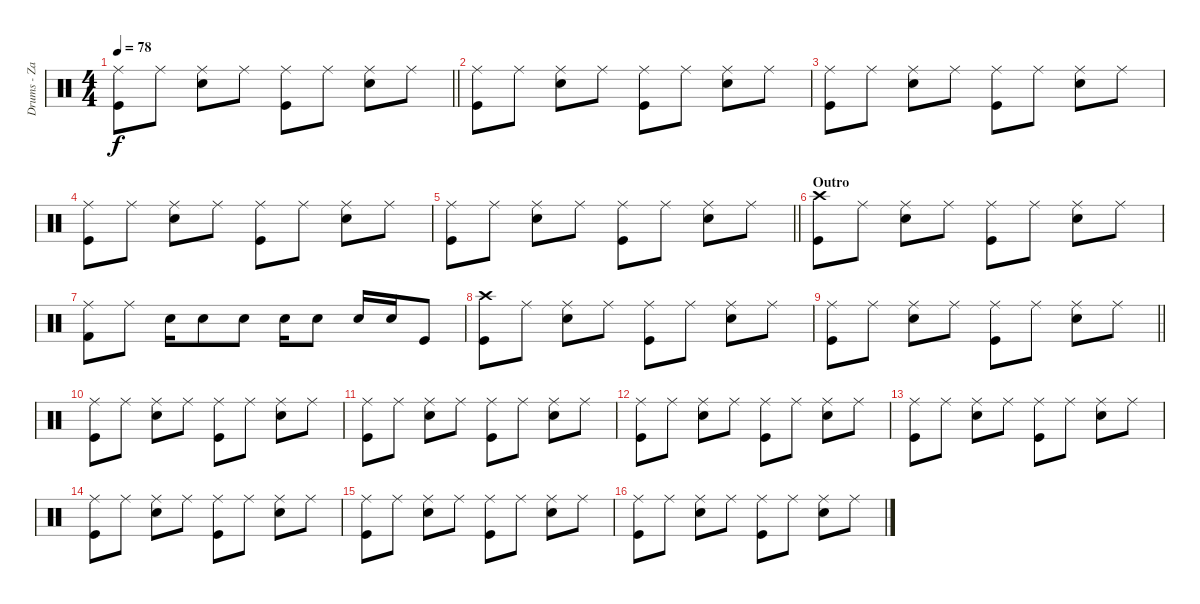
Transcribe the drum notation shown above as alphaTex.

\track ("Drums - Zakk Starkey" "Drums - Za") {instrument percussion}
\staff {score}
\articulation defaults
\ts (4 4)
\tempo 78
\clef neutral
\barLineRight lightlight
\ks c
("Ride (middle)" "Kick (hit)").8{dy f} "Ride (middle)".8 ("Ride (middle)" "Snare (hit) 2").8 "Ride (middle)".8 ("Ride (middle)" "Kick (hit)").8 "Ride (middle)".8 ("Ride (middle)" "Snare (hit) 2").8 "Ride (middle)".8 |
("Ride (middle)" "Kick (hit)").8 "Ride (middle)".8 ("Ride (middle)" "Snare (hit) 2").8 "Ride (middle)".8 ("Ride (middle)" "Kick (hit)").8 "Ride (middle)".8 ("Ride (middle)" "Snare (hit) 2").8 "Ride (middle)".8 |
("Ride (middle)" "Kick (hit)").8 "Ride (middle)".8 ("Ride (middle)" "Snare (hit) 2").8 "Ride (middle)".8 ("Ride (middle)" "Kick (hit)").8 "Ride (middle)".8 ("Ride (middle)" "Snare (hit) 2").8 "Ride (middle)".8 |
("Ride (middle)" "Kick (hit)").8 "Ride (middle)".8 ("Ride (middle)" "Snare (hit) 2").8 "Ride (middle)".8 ("Ride (middle)" "Kick (hit)").8 "Ride (middle)".8 ("Ride (middle)" "Snare (hit) 2").8 "Ride (middle)".8 |
\barLineRight lightlight
("Ride (middle)" "Kick (hit)").8 "Ride (middle)".8 ("Ride (middle)" "Snare (hit) 2").8 "Ride (middle)".8 ("Ride (middle)" "Kick (hit)").8 "Ride (middle)".8 ("Ride (middle)" "Snare (hit) 2").8 "Ride (middle)".8 |
\section ("" "Outro")
("Crash high (hit)" "Kick (hit)").8 "Ride (middle)".8 ("Ride (middle)" "Snare (hit) 2").8 "Ride (middle)".8 ("Ride (middle)" "Kick (hit)").8 "Ride (middle)".8 ("Ride (middle)" "Snare (hit) 2").8 "Ride (middle)".8 |
("Ride (middle)" "Kick (hit) 2").8 "Ride (middle)".8 "Snare (hit) 2".16 "Snare (hit) 2".8 "Snare (hit) 2".8 "Snare (hit) 2".16 "Snare (hit) 2".8 "Snare (hit) 2".16 "Snare (hit) 2".16 "Kick (hit)".8 |
("Crash high (hit)" "Kick (hit)").8 "Ride (middle)".8 ("Ride (middle)" "Snare (hit) 2").8 "Ride (middle)".8 ("Ride (middle)" "Kick (hit)").8 "Ride (middle)".8 ("Ride (middle)" "Snare (hit) 2").8 "Ride (middle)".8 |
\barLineRight lightlight
("Ride (middle)" "Kick (hit)").8 "Ride (middle)".8 ("Ride (middle)" "Snare (hit) 2").8 "Ride (middle)".8 ("Ride (middle)" "Kick (hit)").8 "Ride (middle)".8 ("Ride (middle)" "Snare (hit) 2").8 "Ride (middle)".8 |
("Ride (middle)" "Kick (hit)").8 "Ride (middle)".8 ("Ride (middle)" "Snare (hit) 2").8 "Ride (middle)".8 ("Ride (middle)" "Kick (hit)").8 "Ride (middle)".8 ("Ride (middle)" "Snare (hit) 2").8 "Ride (middle)".8 |
("Ride (middle)" "Kick (hit)").8 "Ride (middle)".8 ("Ride (middle)" "Snare (hit) 2").8 "Ride (middle)".8 ("Ride (middle)" "Kick (hit)").8 "Ride (middle)".8 ("Ride (middle)" "Snare (hit) 2").8 "Ride (middle)".8 |
("Ride (middle)" "Kick (hit)").8 "Ride (middle)".8 ("Ride (middle)" "Snare (hit) 2").8 "Ride (middle)".8 ("Ride (middle)" "Kick (hit)").8 "Ride (middle)".8 ("Ride (middle)" "Snare (hit) 2").8 "Ride (middle)".8 |
("Ride (middle)" "Kick (hit)").8 "Ride (middle)".8 ("Ride (middle)" "Snare (hit) 2").8 "Ride (middle)".8 ("Ride (middle)" "Kick (hit)").8 "Ride (middle)".8 ("Ride (middle)" "Snare (hit) 2").8 "Ride (middle)".8 |
("Ride (middle)" "Kick (hit)").8 "Ride (middle)".8 ("Ride (middle)" "Snare (hit) 2").8 "Ride (middle)".8 ("Ride (middle)" "Kick (hit)").8 "Ride (middle)".8 ("Ride (middle)" "Snare (hit) 2").8 "Ride (middle)".8 |
("Ride (middle)" "Kick (hit)").8 "Ride (middle)".8 ("Ride (middle)" "Snare (hit) 2").8 "Ride (middle)".8 ("Ride (middle)" "Kick (hit)").8 "Ride (middle)".8 ("Ride (middle)" "Snare (hit) 2").8 "Ride (middle)".8 |
("Ride (middle)" "Kick (hit)").8 "Ride (middle)".8 ("Ride (middle)" "Snare (hit) 2").8 "Ride (middle)".8 ("Ride (middle)" "Kick (hit)").8 "Ride (middle)".8 ("Ride (middle)" "Snare (hit) 2").8 "Ride (middle)".8
